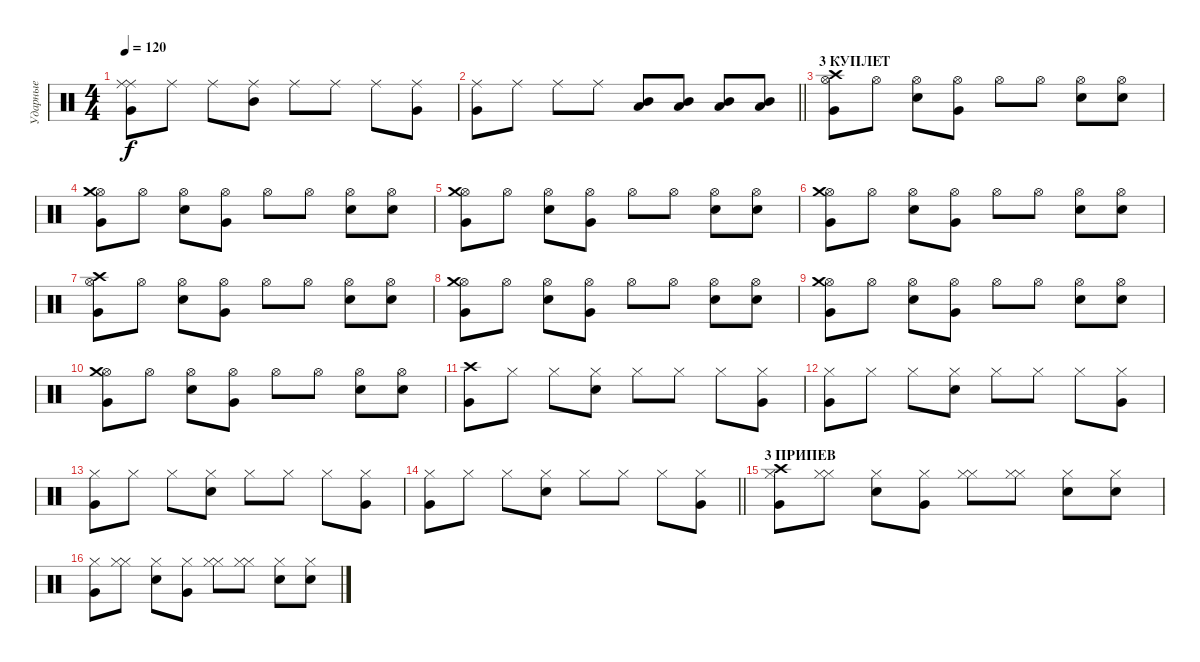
\track ("Ударные" "Ударные") {instrument percussion}
\staff {score}
\articulation defaults
\ts (4 4)
\tempo 120
\clef neutral
\ks c
("Ride (middle)" "Ride (middle)" "Very Low Tom (hit)").8{dy f} "Ride (middle)".8 "Ride (middle)".8 ("Ride (middle)" "Mid Tom (hit)").8 "Ride (middle)".8 "Ride (middle)".8 "Ride (middle)".8 ("Ride (middle)" "Very Low Tom (hit)").8 |
\barLineRight lightlight
("Ride (middle)" "Very Low Tom (hit)").8 "Ride (middle)".8 "Ride (middle)".8 "Ride (middle)".8 ("Low Tom (hit)" "Mid Tom (hit)").8 ("Low Tom (hit)" "Mid Tom (hit)").8 ("Low Tom (hit)" "Mid Tom (hit)").8 ("Low Tom (hit)" "Mid Tom (hit)").8 |
\section ("" "3 КУПЛЕТ")
("Hi-Hat (open)" "Crash high (hit)" "Very Low Tom (hit)").8 "Hi-Hat (open)".8 ("Hi-Hat (open)" "Snare (hit) 2").8 ("Hi-Hat (open)" "Very Low Tom (hit)").8 "Hi-Hat (open)".8 "Hi-Hat (open)".8 ("Hi-Hat (open)" "Snare (hit) 2").8 ("Hi-Hat (open)" "Snare (hit) 2").8 |
("Hi-Hat (open)" "Crash medium (hit)" "Very Low Tom (hit)").8 "Hi-Hat (open)".8 ("Hi-Hat (open)" "Snare (hit) 2").8 ("Hi-Hat (open)" "Very Low Tom (hit)").8 "Hi-Hat (open)".8 "Hi-Hat (open)".8 ("Hi-Hat (open)" "Snare (hit) 2").8 ("Hi-Hat (open)" "Snare (hit) 2").8 |
("Hi-Hat (open)" "Crash medium (hit)" "Very Low Tom (hit)").8 "Hi-Hat (open)".8 ("Hi-Hat (open)" "Snare (hit) 2").8 ("Hi-Hat (open)" "Very Low Tom (hit)").8 "Hi-Hat (open)".8 "Hi-Hat (open)".8 ("Hi-Hat (open)" "Snare (hit) 2").8 ("Hi-Hat (open)" "Snare (hit) 2").8 |
("Hi-Hat (open)" "Crash medium (hit)" "Very Low Tom (hit)").8 "Hi-Hat (open)".8 ("Hi-Hat (open)" "Snare (hit) 2").8 ("Hi-Hat (open)" "Very Low Tom (hit)").8 "Hi-Hat (open)".8 "Hi-Hat (open)".8 ("Hi-Hat (open)" "Snare (hit) 2").8 ("Hi-Hat (open)" "Snare (hit) 2").8 |
("Hi-Hat (open)" "Crash high (hit)" "Very Low Tom (hit)").8 "Hi-Hat (open)".8 ("Hi-Hat (open)" "Snare (hit) 2").8 ("Hi-Hat (open)" "Very Low Tom (hit)").8 "Hi-Hat (open)".8 "Hi-Hat (open)".8 ("Hi-Hat (open)" "Snare (hit) 2").8 ("Hi-Hat (open)" "Snare (hit) 2").8 |
("Hi-Hat (open)" "Crash medium (hit)" "Very Low Tom (hit)").8 "Hi-Hat (open)".8 ("Hi-Hat (open)" "Snare (hit) 2").8 ("Hi-Hat (open)" "Very Low Tom (hit)").8 "Hi-Hat (open)".8 "Hi-Hat (open)".8 ("Hi-Hat (open)" "Snare (hit) 2").8 ("Hi-Hat (open)" "Snare (hit) 2").8 |
("Hi-Hat (open)" "Crash medium (hit)" "Very Low Tom (hit)").8 "Hi-Hat (open)".8 ("Hi-Hat (open)" "Snare (hit) 2").8 ("Hi-Hat (open)" "Very Low Tom (hit)").8 "Hi-Hat (open)".8 "Hi-Hat (open)".8 ("Hi-Hat (open)" "Snare (hit) 2").8 ("Hi-Hat (open)" "Snare (hit) 2").8 |
("Hi-Hat (open)" "Crash medium (hit)" "Very Low Tom (hit)").8 "Hi-Hat (open)".8 ("Hi-Hat (open)" "Snare (hit) 2").8 ("Hi-Hat (open)" "Very Low Tom (hit)").8 "Hi-Hat (open)".8 "Hi-Hat (open)".8 ("Hi-Hat (open)" "Snare (hit) 2").8 ("Hi-Hat (open)" "Snare (hit) 2").8 |
("Crash high (hit)" "Very Low Tom (hit)").8 "Hi-Hat (closed)".8 "Hi-Hat (closed)".8 ("Hi-Hat (closed)" "Snare (hit) 2").8 "Hi-Hat (closed)".8 "Hi-Hat (closed)".8 "Hi-Hat (closed)".8 ("Hi-Hat (closed)" "Very Low Tom (hit)").8 |
("Hi-Hat (closed)" "Very Low Tom (hit)").8 "Hi-Hat (closed)".8 "Hi-Hat (closed)".8 ("Hi-Hat (closed)" "Snare (hit) 2").8 "Hi-Hat (closed)".8 "Hi-Hat (closed)".8 "Hi-Hat (closed)".8 ("Hi-Hat (closed)" "Very Low Tom (hit)").8 |
("Hi-Hat (closed)" "Very Low Tom (hit)").8 "Hi-Hat (closed)".8 "Hi-Hat (closed)".8 ("Hi-Hat (closed)" "Snare (hit) 2").8 "Hi-Hat (closed)".8 "Hi-Hat (closed)".8 "Hi-Hat (closed)".8 ("Hi-Hat (closed)" "Very Low Tom (hit)").8 |
\barLineRight lightlight
("Hi-Hat (closed)" "Very Low Tom (hit)").8 "Hi-Hat (closed)".8 "Hi-Hat (closed)".8 ("Hi-Hat (closed)" "Snare (hit) 2").8 "Hi-Hat (closed)".8 "Hi-Hat (closed)".8 "Hi-Hat (closed)".8 ("Hi-Hat (closed)" "Very Low Tom (hit)").8 |
\section ("" "3 ПРИПЕВ")
("Hi-Hat (closed)" "Crash high (hit)" "Very Low Tom (hit)").8 ("Hi-Hat (closed)" "Hi-Hat (closed)").8 ("Hi-Hat (closed)" "Snare (hit) 2").8 ("Hi-Hat (closed)" "Very Low Tom (hit)").8 ("Hi-Hat (closed)" "Hi-Hat (closed)").8 ("Hi-Hat (closed)" "Hi-Hat (closed)").8 ("Hi-Hat (closed)" "Snare (hit) 2").8 ("Hi-Hat (closed)" "Snare (hit) 2").8 |
("Hi-Hat (closed)" "Very Low Tom (hit)").8 ("Hi-Hat (closed)" "Hi-Hat (closed)").8 ("Hi-Hat (closed)" "Snare (hit) 2").8 ("Hi-Hat (closed)" "Very Low Tom (hit)").8 ("Hi-Hat (closed)" "Hi-Hat (closed)").8 ("Hi-Hat (closed)" "Hi-Hat (closed)").8 ("Hi-Hat (closed)" "Snare (hit) 2").8 ("Hi-Hat (closed)" "Snare (hit) 2").8
